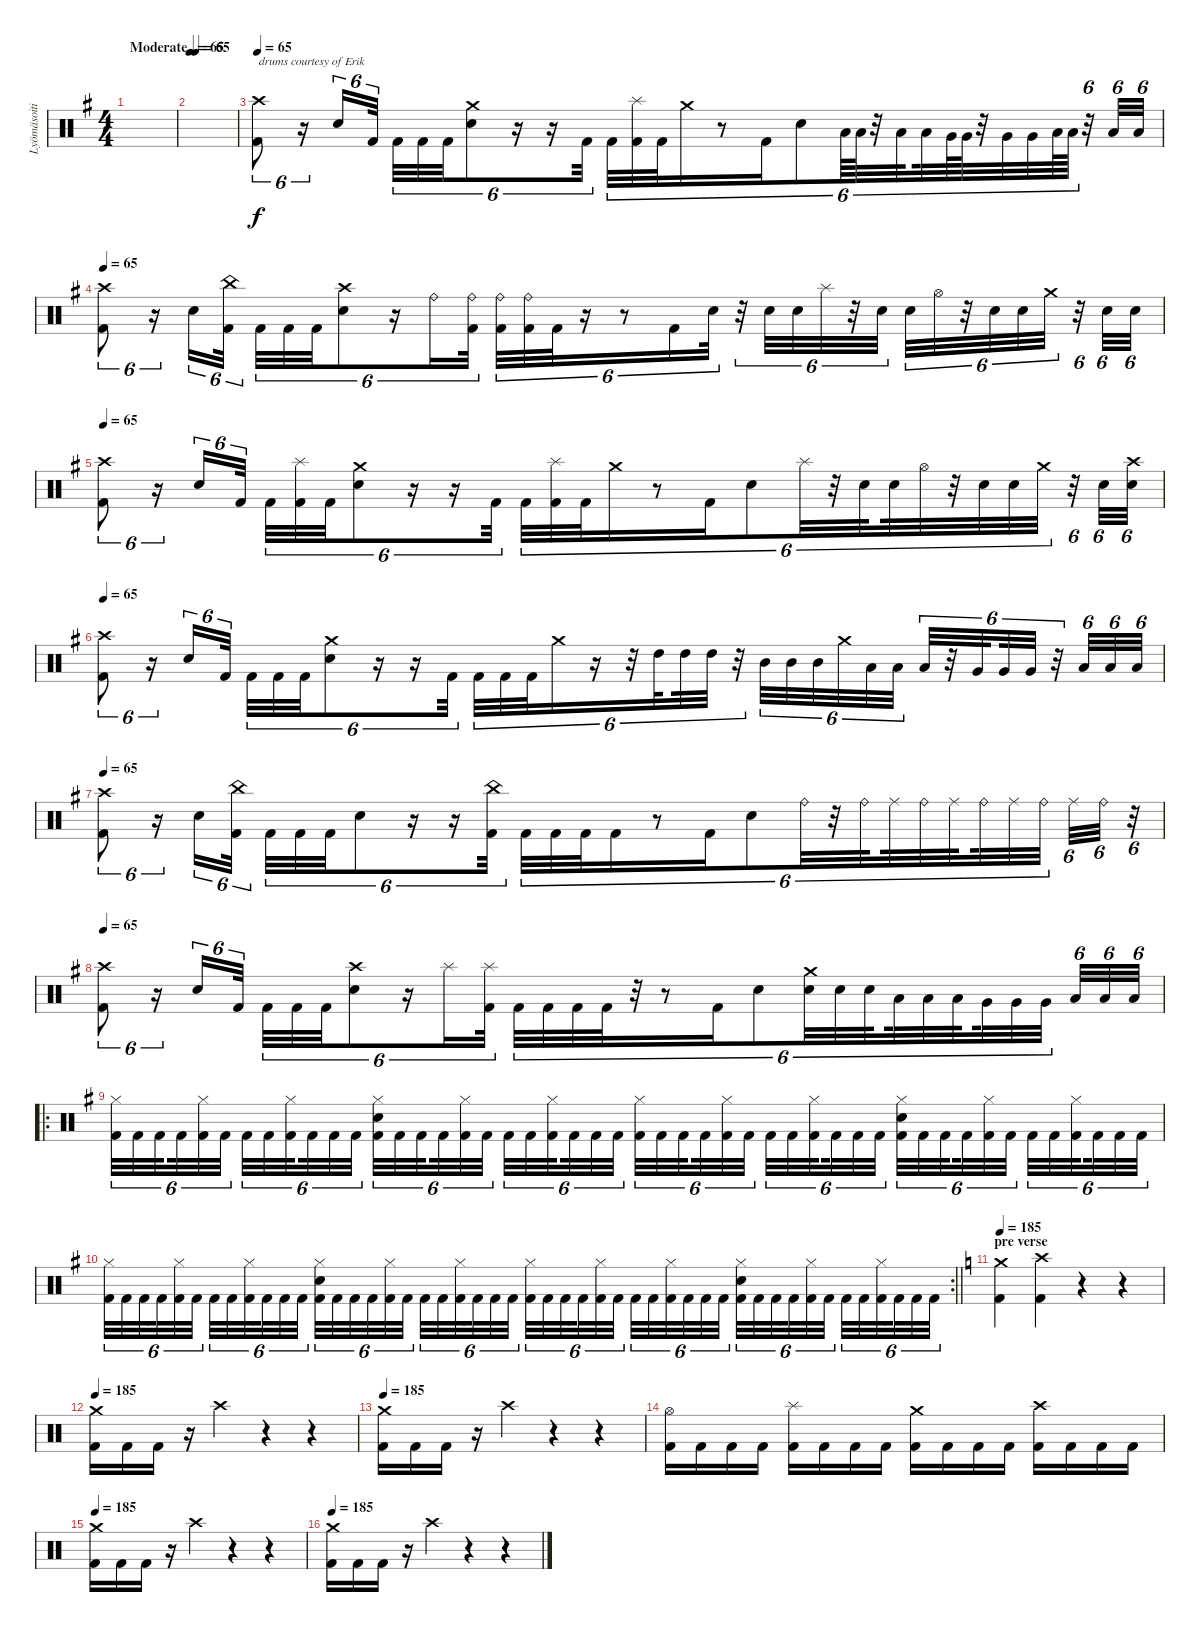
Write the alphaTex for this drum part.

\track ("Lyömäsoitin" "Lyömäsoiti") {instrument percussion}
\staff {score}
\articulation defaults
\ts (4 4)
\tempo (65 "Moderate")
\clef neutral
\ks g
|
\tempo 65
|
\tempo 65
("Crash high (hit)" "Kick (hit) 2").8{tu (6 4) txt "drums courtesy of Erik"} r.16{tu (6 4)} "Electric Snare (hit)".16{tu (6 4)} "Kick (hit) 2".32{tu (6 4) beam splitsecondary} "Kick (hit) 2".32{tu (6 4)} "Kick (hit) 2".32{tu (6 4)} "Kick (hit) 2".32{tu (6 4)} ("Crash medium (hit)" "Electric Snare (hit)").8{tu (6 4)} r.16{tu (6 4)} r.16{tu (6 4)} "Kick (hit) 2".32{tu (6 4) beam splitsecondary} "Kick (hit) 2".32{tu (6 4)} ("Splash (hit)" "Kick (hit) 2").32{tu (6 4)} "Kick (hit) 2".32{tu (6 4)} "Crash medium (hit)".16{tu (6 4)} r.8{tu (6 4)} "Kick (hit) 2".16{tu (6 4)} "Electric Snare (hit)".8{tu (6 4)} "Low Tom (hit)".64{tu (6 4)} "Low Tom (hit)".64{tu (6 4)} r.32{tu (6 4)} "Low Tom (hit)".32{tu (6 4) beam splitsecondary} "Low Tom (hit)".32{tu (6 4)} "Very Low Tom (hit)".64{tu (6 4)} "Very Low Tom (hit)".64{tu (6 4)} r.32{tu (6 4)} "Very Low Tom (hit)".32{tu (6 4)} "Very Low Tom (hit)".32{tu (6 4)} "Low Floor Tom (hit)".64{tu (6 4)} "Low Floor Tom (hit)".64{tu (6 4)} r.32{tu (6 4)} "Low Floor Tom (hit)".32{tu (6 4)} "Low Floor Tom (hit)".32{tu (6 4)} |
\tempo 65
("Crash high (hit)" "Kick (hit) 2").8{tu (6 4)} r.16{tu (6 4)} "Electric Snare (hit)".16{tu (6 4)} ("China (hit)" "Kick (hit) 2").32{tu (6 4) beam splitsecondary} "Kick (hit) 2".32{tu (6 4)} "Kick (hit) 2".32{tu (6 4)} "Kick (hit) 2".32{tu (6 4)} ("Crash high (hit)" "Electric Snare (hit)").8{tu (6 4)} r.16{tu (6 4)} "Ride (bell)".16{tu (6 4)} ("Ride (bell)" "Kick (hit) 2").32{tu (6 4) beam splitsecondary} ("Ride (bell)" "Kick (hit) 2").32{tu (6 4)} ("Ride (bell)" "Kick (hit) 2").32{tu (6 4)} "Kick (hit) 2".32{tu (6 4)} r.16{tu (6 4)} r.8{tu (6 4)} "Kick (hit) 2".16{tu (6 4)} "Electric Snare (hit)".32{tu (6 4)} r.32{tu (6 4)} "Electric Snare (hit)".32{tu (6 4)} "Electric Snare (hit)".32{tu (6 4)} "Splash (hit)".32{tu (6 4)} r.32{tu (6 4)} "Snare (hit) 2".32{tu (6 4) beam splitsecondary} "Snare (hit) 2".32{tu (6 4)} "Hi-Hat (open)".32{tu (6 4)} r.32{tu (6 4)} "Snare (hit) 2".32{tu (6 4)} "Snare (hit) 2".32{tu (6 4)} "Crash medium (hit)".32{tu (6 4)} r.32{tu (6 4)} "Snare (hit) 2".32{tu (6 4)} "Snare (hit) 2".32{tu (6 4)} |
\tempo 65
("Crash high (hit)" "Kick (hit) 2").8{tu (6 4)} r.16{tu (6 4)} "Electric Snare (hit)".16{tu (6 4)} "Kick (hit) 2".32{tu (6 4) beam splitsecondary} "Kick (hit) 2".32{tu (6 4)} ("Splash (hit)" "Kick (hit) 2").32{tu (6 4)} "Kick (hit) 2".32{tu (6 4)} ("Crash medium (hit)" "Electric Snare (hit)").8{tu (6 4)} r.16{tu (6 4)} r.16{tu (6 4)} "Kick (hit) 2".32{tu (6 4) beam splitsecondary} "Kick (hit) 2".32{tu (6 4)} ("Splash (hit)" "Kick (hit) 2").32{tu (6 4)} "Kick (hit) 2".32{tu (6 4)} "Crash medium (hit)".16{tu (6 4)} r.8{tu (6 4)} "Kick (hit) 2".16{tu (6 4)} "Electric Snare (hit)".8{tu (6 4)} "Splash (hit)".32{tu (6 4)} r.32{tu (6 4)} "Snare (hit) 2".32{tu (6 4) beam splitsecondary} "Snare (hit) 2".32{tu (6 4)} "Hi-Hat (open)".32{tu (6 4)} r.32{tu (6 4)} "Snare (hit) 2".32{tu (6 4)} "Snare (hit) 2".32{tu (6 4)} "Crash medium (hit)".32{tu (6 4)} r.32{tu (6 4)} "Snare (hit) 2".32{tu (6 4)} ("Crash high (hit)" "Snare (hit) 2").32{tu (6 4)} |
\tempo 65
("Crash high (hit)" "Kick (hit) 2").8{tu (6 4)} r.16{tu (6 4)} "Electric Snare (hit)".16{tu (6 4)} "Kick (hit) 2".32{tu (6 4) beam splitsecondary} "Kick (hit) 2".32{tu (6 4)} "Kick (hit) 2".32{tu (6 4)} "Kick (hit) 2".32{tu (6 4)} ("Crash medium (hit)" "Electric Snare (hit)").8{tu (6 4)} r.16{tu (6 4)} r.16{tu (6 4)} "Kick (hit) 2".32{tu (6 4) beam splitsecondary} "Kick (hit) 2".32{tu (6 4)} "Kick (hit) 2".32{tu (6 4)} "Kick (hit) 2".32{tu (6 4)} "Crash medium (hit)".16{tu (6 4)} r.16{tu (6 4)} r.32{tu (6 4)} "High Tom (hit)".32{tu (6 4) beam splitsecondary} "High Tom (hit)".32{tu (6 4)} "High Tom (hit)".32{tu (6 4)} r.32{tu (6 4)} "Mid Tom (hit)".32{tu (6 4)} "Mid Tom (hit)".32{tu (6 4)} "Mid Tom (hit)".32{tu (6 4)} "Crash medium (hit)".32{tu (6 4)} "Low Tom (hit)".32{tu (6 4)} "Low Tom (hit)".32{tu (6 4) beam splitsecondary} "Low Tom (hit)".32{tu (6 4)} r.32{tu (6 4)} "Very Low Tom (hit)".32{tu (6 4) beam splitsecondary} "Very Low Tom (hit)".32{tu (6 4)} "Very Low Tom (hit)".32{tu (6 4)} r.32{tu (6 4)} "Low Floor Tom (hit)".32{tu (6 4)} "Low Floor Tom (hit)".32{tu (6 4)} "Low Floor Tom (hit)".32{tu (6 4)} |
\tempo 65
("Crash high (hit)" "Kick (hit) 2").8{tu (6 4)} r.16{tu (6 4)} "Electric Snare (hit)".16{tu (6 4)} ("China (hit)" "Kick (hit) 2").32{tu (6 4) beam splitsecondary} "Kick (hit) 2".32{tu (6 4)} "Kick (hit) 2".32{tu (6 4)} "Kick (hit) 2".32{tu (6 4)} "Electric Snare (hit)".8{tu (6 4)} r.16{tu (6 4)} r.16{tu (6 4)} ("China (hit)" "Kick (hit) 2").32{tu (6 4) beam splitsecondary} "Kick (hit) 2".32{tu (6 4)} "Kick (hit) 2".32{tu (6 4)} "Kick (hit) 2".32{tu (6 4)} "Kick (hit) 2".16{tu (6 4)} r.8{tu (6 4)} "Kick (hit) 2".16{tu (6 4)} "Electric Snare (hit)".8{tu (6 4)} "Ride (bell)".32{tu (6 4)} r.32{tu (6 4)} "Ride (bell)".32{tu (6 4) beam splitsecondary} "Ride (middle)".32{tu (6 4)} "Ride (bell)".32{tu (6 4)} "Ride (middle)".32{tu (6 4) beam splitsecondary} "Ride (bell)".32{tu (6 4)} "Ride (middle)".32{tu (6 4)} "Ride (bell)".32{tu (6 4) beam splitsecondary} "Ride (middle)".32{tu (6 4)} "Ride (bell)".32{tu (6 4)} r.32{tu (6 4)} |
\tempo 65
("Crash high (hit)" "Kick (hit) 2").8{tu (6 4)} r.16{tu (6 4)} "Electric Snare (hit)".16{tu (6 4)} "Kick (hit) 2".32{tu (6 4) beam splitsecondary} "Kick (hit) 2".32{tu (6 4)} "Kick (hit) 2".32{tu (6 4)} "Kick (hit) 2".32{tu (6 4)} ("Crash high (hit)" "Electric Snare (hit)").8{tu (6 4)} r.16{tu (6 4)} "Splash (hit)".16{tu (6 4)} ("Splash (hit)" "Kick (hit) 2").32{tu (6 4) beam splitsecondary} "Kick (hit) 2".32{tu (6 4)} "Kick (hit) 2".32{tu (6 4)} "Kick (hit) 2".32{tu (6 4)} "Kick (hit) 2".32{tu (6 4)} r.32{tu (6 4)} r.8{tu (6 4)} "Kick (hit) 2".16{tu (6 4)} "Electric Snare (hit)".8{tu (6 4)} ("Crash medium (hit)" "Electric Snare (hit)").32{tu (6 4)} "Electric Snare (hit)".32{tu (6 4)} "Electric Snare (hit)".32{tu (6 4) beam splitsecondary} "Low Tom (hit)".32{tu (6 4)} "Low Tom (hit)".32{tu (6 4)} "Low Tom (hit)".32{tu (6 4) beam splitsecondary} "Very Low Tom (hit)".32{tu (6 4)} "Very Low Tom (hit)".32{tu (6 4)} "Very Low Tom (hit)".32{tu (6 4) beam splitsecondary} "Low Floor Tom (hit)".32{tu (6 4)} "Low Floor Tom (hit)".32{tu (6 4)} "Low Floor Tom (hit)".32{tu (6 4)} |
\ro
("Hi-Hat (closed)" "Kick (hit) 2").32{tu (6 4)} "Kick (hit) 2".32{tu (6 4)} "Kick (hit) 2".32{tu (6 4) beam splitsecondary} "Kick (hit) 2".32{tu (6 4)} ("Hi-Hat (closed)" "Kick (hit) 2").32{tu (6 4)} "Kick (hit) 2".32{tu (6 4) beam splitsecondary} "Kick (hit) 2".32{tu (6 4)} "Kick (hit) 2".32{tu (6 4)} ("Hi-Hat (closed)" "Kick (hit) 2").32{tu (6 4) beam splitsecondary} "Kick (hit) 2".32{tu (6 4)} "Kick (hit) 2".32{tu (6 4)} "Kick (hit) 2".32{tu (6 4)} ("Hi-Hat (closed)" "Electric Snare (hit)" "Kick (hit) 2").32{tu (6 4)} "Kick (hit) 2".32{tu (6 4)} "Kick (hit) 2".32{tu (6 4) beam splitsecondary} "Kick (hit) 2".32{tu (6 4)} ("Hi-Hat (closed)" "Kick (hit) 2").32{tu (6 4)} "Kick (hit) 2".32{tu (6 4) beam splitsecondary} "Kick (hit) 2".32{tu (6 4)} "Kick (hit) 2".32{tu (6 4)} ("Hi-Hat (closed)" "Kick (hit) 2").32{tu (6 4) beam splitsecondary} "Kick (hit) 2".32{tu (6 4)} "Kick (hit) 2".32{tu (6 4)} "Kick (hit) 2".32{tu (6 4)} ("Hi-Hat (closed)" "Kick (hit) 2").32{tu (6 4)} "Kick (hit) 2".32{tu (6 4)} "Kick (hit) 2".32{tu (6 4) beam splitsecondary} "Kick (hit) 2".32{tu (6 4)} ("Hi-Hat (closed)" "Kick (hit) 2").32{tu (6 4)} "Kick (hit) 2".32{tu (6 4) beam splitsecondary} "Kick (hit) 2".32{tu (6 4)} "Kick (hit) 2".32{tu (6 4)} ("Hi-Hat (closed)" "Kick (hit) 2").32{tu (6 4) beam splitsecondary} "Kick (hit) 2".32{tu (6 4)} "Kick (hit) 2".32{tu (6 4)} "Kick (hit) 2".32{tu (6 4)} ("Hi-Hat (closed)" "Electric Snare (hit)" "Kick (hit) 2").32{tu (6 4)} "Kick (hit) 2".32{tu (6 4)} "Kick (hit) 2".32{tu (6 4) beam splitsecondary} "Kick (hit) 2".32{tu (6 4)} ("Hi-Hat (closed)" "Kick (hit) 2").32{tu (6 4)} "Kick (hit) 2".32{tu (6 4) beam splitsecondary} "Kick (hit) 2".32{tu (6 4)} "Kick (hit) 2".32{tu (6 4)} ("Hi-Hat (closed)" "Kick (hit) 2").32{tu (6 4) beam splitsecondary} "Kick (hit) 2".32{tu (6 4)} "Kick (hit) 2".32{tu (6 4)} "Kick (hit) 2".32{tu (6 4)} |
\rc 2
\barLineRight lightlight
("Hi-Hat (closed)" "Kick (hit) 2").32{tu (6 4)} "Kick (hit) 2".32{tu (6 4)} "Kick (hit) 2".32{tu (6 4) beam splitsecondary} "Kick (hit) 2".32{tu (6 4)} ("Hi-Hat (closed)" "Kick (hit) 2").32{tu (6 4)} "Kick (hit) 2".32{tu (6 4) beam splitsecondary} "Kick (hit) 2".32{tu (6 4)} "Kick (hit) 2".32{tu (6 4)} ("Hi-Hat (closed)" "Kick (hit) 2").32{tu (6 4) beam splitsecondary} "Kick (hit) 2".32{tu (6 4)} "Kick (hit) 2".32{tu (6 4)} "Kick (hit) 2".32{tu (6 4)} ("Hi-Hat (closed)" "Electric Snare (hit)" "Kick (hit) 2").32{tu (6 4)} "Kick (hit) 2".32{tu (6 4)} "Kick (hit) 2".32{tu (6 4) beam splitsecondary} "Kick (hit) 2".32{tu (6 4)} ("Hi-Hat (closed)" "Kick (hit) 2").32{tu (6 4)} "Kick (hit) 2".32{tu (6 4) beam splitsecondary} "Kick (hit) 2".32{tu (6 4)} "Kick (hit) 2".32{tu (6 4)} ("Hi-Hat (closed)" "Kick (hit) 2").32{tu (6 4) beam splitsecondary} "Kick (hit) 2".32{tu (6 4)} "Kick (hit) 2".32{tu (6 4)} "Kick (hit) 2".32{tu (6 4)} ("Hi-Hat (closed)" "Kick (hit) 2").32{tu (6 4)} "Kick (hit) 2".32{tu (6 4)} "Kick (hit) 2".32{tu (6 4) beam splitsecondary} "Kick (hit) 2".32{tu (6 4)} ("Hi-Hat (closed)" "Kick (hit) 2").32{tu (6 4)} "Kick (hit) 2".32{tu (6 4) beam splitsecondary} "Kick (hit) 2".32{tu (6 4)} "Kick (hit) 2".32{tu (6 4)} ("Hi-Hat (closed)" "Kick (hit) 2").32{tu (6 4) beam splitsecondary} "Kick (hit) 2".32{tu (6 4)} "Kick (hit) 2".32{tu (6 4)} "Kick (hit) 2".32{tu (6 4)} ("Hi-Hat (closed)" "Electric Snare (hit)" "Kick (hit) 2").32{tu (6 4)} "Kick (hit) 2".32{tu (6 4)} "Kick (hit) 2".32{tu (6 4) beam splitsecondary} "Kick (hit) 2".32{tu (6 4)} ("Hi-Hat (closed)" "Kick (hit) 2").32{tu (6 4)} "Kick (hit) 2".32{tu (6 4) beam splitsecondary} "Kick (hit) 2".32{tu (6 4)} "Kick (hit) 2".32{tu (6 4)} ("Hi-Hat (closed)" "Kick (hit) 2").32{tu (6 4) beam splitsecondary} "Kick (hit) 2".32{tu (6 4)} "Kick (hit) 2".32{tu (6 4)} "Kick (hit) 2".32{tu (6 4)} |
\section ("" "pre verse")
\tempo 185
\ks c
("Crash medium (hit)" "Kick (hit) 2").4 ("Crash high (hit)" "Kick (hit) 2").4 r.4 r.4 |
\tempo 185
("Crash medium (hit)" "Kick (hit) 2").16 "Kick (hit) 2".16 "Kick (hit) 2".16 r.16 "Crash high (hit)".4 r.4 r.4 |
\tempo 185
("Crash medium (hit)" "Kick (hit) 2").16 "Kick (hit) 2".16 "Kick (hit) 2".16 r.16 "Crash high (hit)".4 r.4 r.4 |
("Hi-Hat (open)" "Kick (hit) 2").16 "Kick (hit) 2".16 "Kick (hit) 2".16 "Kick (hit) 2".16 ("Splash (hit)" "Kick (hit) 2").16 "Kick (hit) 2".16 "Kick (hit) 2".16 "Kick (hit) 2".16 ("Crash medium (hit)" "Kick (hit) 2").16 "Kick (hit) 2".16 "Kick (hit) 2".16 "Kick (hit) 2".16 ("Crash high (hit)" "Kick (hit) 2").16 "Kick (hit) 2".16 "Kick (hit) 2".16 "Kick (hit) 2".16 |
\tempo 185
("Crash medium (hit)" "Kick (hit) 2").16 "Kick (hit) 2".16 "Kick (hit) 2".16 r.16 "Crash high (hit)".4 r.4 r.4 |
\tempo 185
("Crash medium (hit)" "Kick (hit) 2").16 "Kick (hit) 2".16 "Kick (hit) 2".16 r.16 "Crash high (hit)".4 r.4 r.4
